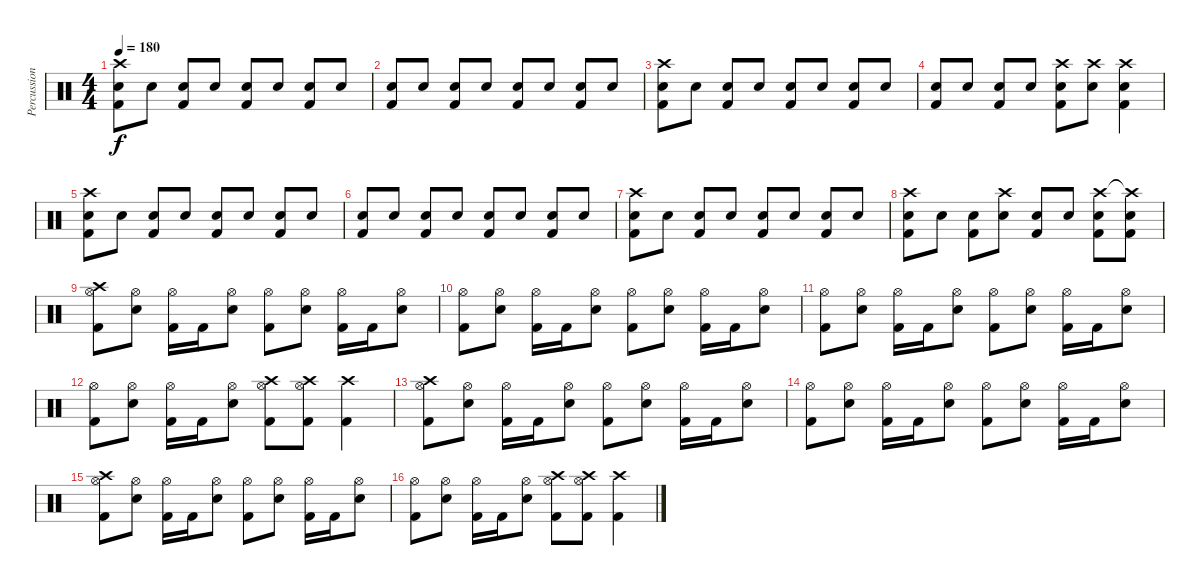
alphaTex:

\track ("Percussion" "Percussion") {instrument percussion}
\staff {score}
\articulation defaults
\ts (4 4)
\tempo 180
\clef neutral
\ks c
("Crash high (hit)" "Snare (hit) 2" "Kick (hit) 2").8{dy f} "Snare (hit) 2".8 ("Snare (hit) 2" "Kick (hit) 2").8 "Snare (hit) 2".8 ("Snare (hit) 2" "Kick (hit) 2").8 "Snare (hit) 2".8 ("Snare (hit) 2" "Kick (hit) 2").8 "Snare (hit) 2".8 |
("Snare (hit) 2" "Kick (hit) 2").8 "Snare (hit) 2".8 ("Snare (hit) 2" "Kick (hit) 2").8 "Snare (hit) 2".8 ("Snare (hit) 2" "Kick (hit) 2").8 "Snare (hit) 2".8 ("Snare (hit) 2" "Kick (hit) 2").8 "Snare (hit) 2".8 |
("Crash high (hit)" "Snare (hit) 2" "Kick (hit) 2").8 "Snare (hit) 2".8 ("Snare (hit) 2" "Kick (hit) 2").8 "Snare (hit) 2".8 ("Snare (hit) 2" "Kick (hit) 2").8 "Snare (hit) 2".8 ("Snare (hit) 2" "Kick (hit) 2").8 "Snare (hit) 2".8 |
("Snare (hit) 2" "Kick (hit) 2").8 "Snare (hit) 2".8 ("Snare (hit) 2" "Kick (hit) 2").8 "Snare (hit) 2".8 ("Crash high (hit)" "Snare (hit) 2" "Kick (hit) 2").8 ("Crash high (hit)" "Snare (hit) 2").8 ("Crash high (hit)" "Snare (hit) 2" "Kick (hit) 2").4 |
("Crash high (hit)" "Snare (hit) 2" "Kick (hit) 2").8 "Snare (hit) 2".8 ("Snare (hit) 2" "Kick (hit) 2").8 "Snare (hit) 2".8 ("Snare (hit) 2" "Kick (hit) 2").8 "Snare (hit) 2".8 ("Snare (hit) 2" "Kick (hit) 2").8 "Snare (hit) 2".8 |
("Snare (hit) 2" "Kick (hit) 2").8 "Snare (hit) 2".8 ("Snare (hit) 2" "Kick (hit) 2").8 "Snare (hit) 2".8 ("Snare (hit) 2" "Kick (hit) 2").8 "Snare (hit) 2".8 ("Snare (hit) 2" "Kick (hit) 2").8 "Snare (hit) 2".8 |
("Crash high (hit)" "Snare (hit) 2" "Kick (hit) 2").8 "Snare (hit) 2".8 ("Snare (hit) 2" "Kick (hit) 2").8 "Snare (hit) 2".8 ("Snare (hit) 2" "Kick (hit) 2").8 "Snare (hit) 2".8 ("Snare (hit) 2" "Kick (hit) 2").8 "Snare (hit) 2".8 |
("Crash high (hit)" "Snare (hit) 2" "Kick (hit) 2").8 "Snare (hit) 2".8 ("Snare (hit) 2" "Kick (hit) 2").8 ("Crash high (hit)" "Snare (hit) 2").8 ("Snare (hit) 2" "Kick (hit) 2").8 "Snare (hit) 2".8 ("Crash high (hit)" "Snare (hit) 2" "Kick (hit) 2").8 ("Crash high (hit)"{t} "Snare (hit) 2" "Kick (hit) 2").8 |
("Crash high (hit)" "Hi-Hat (open)" "Kick (hit) 2").8 ("Hi-Hat (open)" "Snare (hit) 2").8 ("Hi-Hat (open)" "Kick (hit) 2").16 "Kick (hit) 2".16 ("Hi-Hat (open)" "Snare (hit) 2").8 ("Hi-Hat (open)" "Kick (hit) 2").8 ("Hi-Hat (open)" "Snare (hit) 2").8 ("Hi-Hat (open)" "Kick (hit) 2").16 "Kick (hit) 2".16 ("Hi-Hat (open)" "Snare (hit) 2").8 |
("Hi-Hat (open)" "Kick (hit) 2").8 ("Hi-Hat (open)" "Snare (hit) 2").8 ("Hi-Hat (open)" "Kick (hit) 2").16 "Kick (hit) 2".16 ("Hi-Hat (open)" "Snare (hit) 2").8 ("Hi-Hat (open)" "Kick (hit) 2").8 ("Hi-Hat (open)" "Snare (hit) 2").8 ("Hi-Hat (open)" "Kick (hit) 2").16 "Kick (hit) 2".16 ("Hi-Hat (open)" "Snare (hit) 2").8 |
("Hi-Hat (open)" "Kick (hit) 2").8 ("Hi-Hat (open)" "Snare (hit) 2").8 ("Hi-Hat (open)" "Kick (hit) 2").16 "Kick (hit) 2".16 ("Hi-Hat (open)" "Snare (hit) 2").8 ("Hi-Hat (open)" "Kick (hit) 2").8 ("Hi-Hat (open)" "Snare (hit) 2").8 ("Hi-Hat (open)" "Kick (hit) 2").16 "Kick (hit) 2".16 ("Hi-Hat (open)" "Snare (hit) 2").8 |
("Hi-Hat (open)" "Kick (hit) 2").8 ("Hi-Hat (open)" "Snare (hit) 2").8 ("Hi-Hat (open)" "Kick (hit) 2").16 "Kick (hit) 2".16 ("Hi-Hat (open)" "Snare (hit) 2").8 ("Crash high (hit)" "Hi-Hat (open)" "Kick (hit) 2").8 ("Crash high (hit)" "Hi-Hat (open)" "Kick (hit) 2").8 ("Crash high (hit)" "Kick (hit) 2").4 |
("Crash high (hit)" "Hi-Hat (open)" "Kick (hit) 2").8 ("Hi-Hat (open)" "Snare (hit) 2").8 ("Hi-Hat (open)" "Kick (hit) 2").16 "Kick (hit) 2".16 ("Hi-Hat (open)" "Snare (hit) 2").8 ("Hi-Hat (open)" "Kick (hit) 2").8 ("Hi-Hat (open)" "Snare (hit) 2").8 ("Hi-Hat (open)" "Kick (hit) 2").16 "Kick (hit) 2".16 ("Hi-Hat (open)" "Snare (hit) 2").8 |
("Hi-Hat (open)" "Kick (hit) 2").8 ("Hi-Hat (open)" "Snare (hit) 2").8 ("Hi-Hat (open)" "Kick (hit) 2").16 "Kick (hit) 2".16 ("Hi-Hat (open)" "Snare (hit) 2").8 ("Hi-Hat (open)" "Kick (hit) 2").8 ("Hi-Hat (open)" "Snare (hit) 2").8 ("Hi-Hat (open)" "Kick (hit) 2").16 "Kick (hit) 2".16 ("Hi-Hat (open)" "Snare (hit) 2").8 |
("Crash high (hit)" "Hi-Hat (open)" "Kick (hit) 2").8 ("Hi-Hat (open)" "Snare (hit) 2").8 ("Hi-Hat (open)" "Kick (hit) 2").16 "Kick (hit) 2".16 ("Hi-Hat (open)" "Snare (hit) 2").8 ("Hi-Hat (open)" "Kick (hit) 2").8 ("Hi-Hat (open)" "Snare (hit) 2").8 ("Hi-Hat (open)" "Kick (hit) 2").16 "Kick (hit) 2".16 ("Hi-Hat (open)" "Snare (hit) 2").8 |
("Hi-Hat (open)" "Kick (hit) 2").8 ("Hi-Hat (open)" "Snare (hit) 2").8 ("Hi-Hat (open)" "Kick (hit) 2").16 "Kick (hit) 2".16 ("Hi-Hat (open)" "Snare (hit) 2").8 ("Crash high (hit)" "Hi-Hat (open)" "Kick (hit) 2").8 ("Crash high (hit)" "Hi-Hat (open)" "Kick (hit) 2").8 ("Crash high (hit)" "Kick (hit) 2").4
